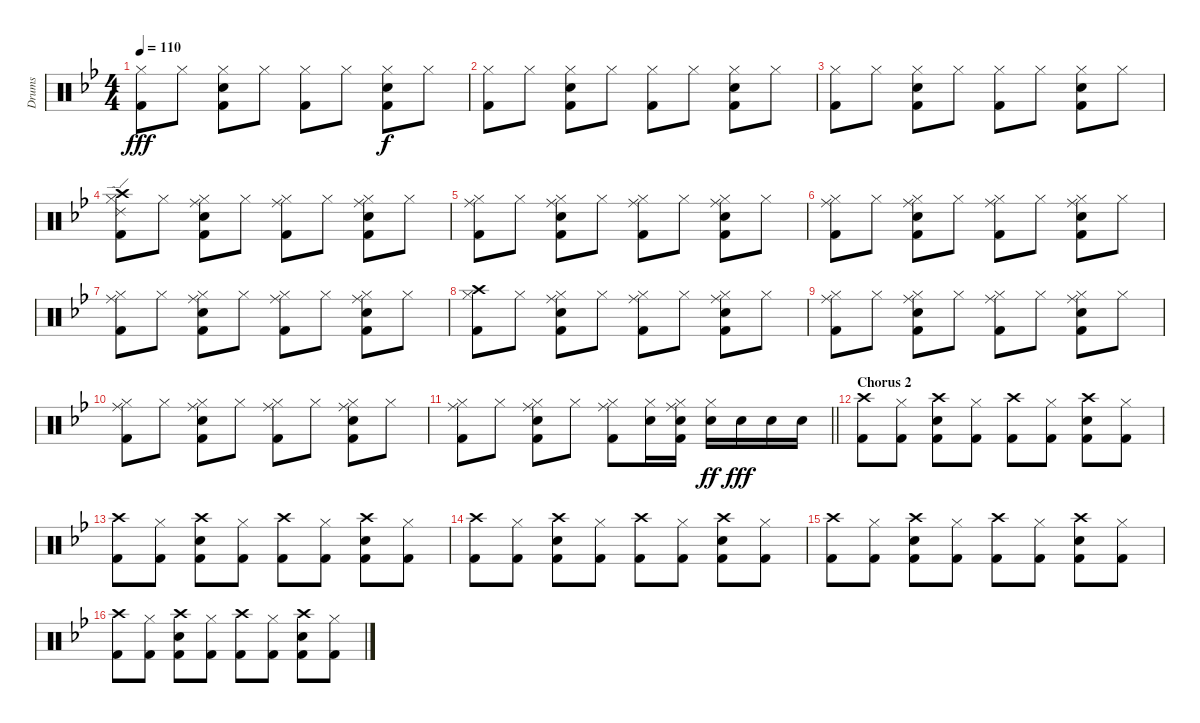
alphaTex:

\track ("Drums" "Drums") {instrument percussion}
\staff {score}
\articulation defaults
\ts (4 4)
\tempo 110
\clef neutral
\ks bb
("Hi-Hat (closed)" "Kick (hit) 2").8{dy fff} "Hi-Hat (closed)".8 ("Hi-Hat (closed)" "Electric Snare (hit)" "Kick (hit) 2").8 "Hi-Hat (closed)".8 ("Hi-Hat (closed)" "Kick (hit) 2").8 "Hi-Hat (closed)".8 ("Hi-Hat (closed)" "Electric Snare (hit)" "Kick (hit) 2").8{dy f} "Hi-Hat (closed)".8 |
("Hi-Hat (closed)" "Kick (hit) 2").8 "Hi-Hat (closed)".8 ("Hi-Hat (closed)" "Electric Snare (hit)" "Kick (hit) 2").8 "Hi-Hat (closed)".8 ("Hi-Hat (closed)" "Kick (hit) 2").8 "Hi-Hat (closed)".8 ("Hi-Hat (closed)" "Electric Snare (hit)" "Kick (hit) 2").8 "Hi-Hat (closed)".8 |
("Hi-Hat (closed)" "Kick (hit) 2").8 "Hi-Hat (closed)".8 ("Hi-Hat (closed)" "Electric Snare (hit)" "Kick (hit) 2").8 "Hi-Hat (closed)".8 ("Hi-Hat (closed)" "Kick (hit) 2").8 "Hi-Hat (closed)".8 ("Hi-Hat (closed)" "Electric Snare (hit)" "Kick (hit) 2").8 "Hi-Hat (closed)".8 |
("Crash high (hit)" "Ride (edge) 2" "Hi-Hat (closed)" "Kick (hit) 2").8 "Hi-Hat (closed)".8 ("Ride (middle)" "Hi-Hat (closed)" "Electric Snare (hit)" "Kick (hit) 2").8 "Hi-Hat (closed)".8 ("Ride (middle)" "Hi-Hat (closed)" "Kick (hit) 2").8 "Hi-Hat (closed)".8 ("Ride (middle)" "Hi-Hat (closed)" "Electric Snare (hit)" "Kick (hit) 2").8 "Hi-Hat (closed)".8 |
("Ride (middle)" "Hi-Hat (closed)" "Kick (hit) 2").8 "Hi-Hat (closed)".8 ("Ride (middle)" "Hi-Hat (closed)" "Electric Snare (hit)" "Kick (hit) 2").8 "Hi-Hat (closed)".8 ("Ride (middle)" "Hi-Hat (closed)" "Kick (hit) 2").8 "Hi-Hat (closed)".8 ("Ride (middle)" "Hi-Hat (closed)" "Electric Snare (hit)" "Kick (hit) 2").8 "Hi-Hat (closed)".8 |
("Ride (middle)" "Hi-Hat (closed)" "Kick (hit) 2").8 "Hi-Hat (closed)".8 ("Ride (middle)" "Hi-Hat (closed)" "Electric Snare (hit)" "Kick (hit) 2").8 "Hi-Hat (closed)".8 ("Ride (middle)" "Hi-Hat (closed)" "Kick (hit) 2").8 "Hi-Hat (closed)".8 ("Ride (middle)" "Hi-Hat (closed)" "Electric Snare (hit)" "Kick (hit) 2").8 "Hi-Hat (closed)".8 |
("Ride (middle)" "Hi-Hat (closed)" "Kick (hit) 2").8 "Hi-Hat (closed)".8 ("Ride (middle)" "Hi-Hat (closed)" "Electric Snare (hit)" "Kick (hit) 2").8 "Hi-Hat (closed)".8 ("Ride (middle)" "Hi-Hat (closed)" "Kick (hit) 2").8 "Hi-Hat (closed)".8 ("Ride (middle)" "Hi-Hat (closed)" "Electric Snare (hit)" "Kick (hit) 2").8 "Hi-Hat (closed)".8 |
("Crash high (hit)" "Hi-Hat (closed)" "Kick (hit) 2").8 "Hi-Hat (closed)".8 ("Ride (middle)" "Hi-Hat (closed)" "Electric Snare (hit)" "Kick (hit) 2").8 "Hi-Hat (closed)".8 ("Ride (middle)" "Hi-Hat (closed)" "Kick (hit) 2").8 "Hi-Hat (closed)".8 ("Ride (middle)" "Hi-Hat (closed)" "Electric Snare (hit)" "Kick (hit) 2").8 "Hi-Hat (closed)".8 |
("Ride (middle)" "Hi-Hat (closed)" "Kick (hit) 2").8 "Hi-Hat (closed)".8 ("Ride (middle)" "Hi-Hat (closed)" "Electric Snare (hit)" "Kick (hit) 2").8 "Hi-Hat (closed)".8 ("Ride (middle)" "Hi-Hat (closed)" "Kick (hit) 2").8 "Hi-Hat (closed)".8 ("Ride (middle)" "Hi-Hat (closed)" "Electric Snare (hit)" "Kick (hit) 2").8 "Hi-Hat (closed)".8 |
("Ride (middle)" "Hi-Hat (closed)" "Kick (hit) 2").8 "Hi-Hat (closed)".8 ("Ride (middle)" "Hi-Hat (closed)" "Electric Snare (hit)" "Kick (hit) 2").8 "Hi-Hat (closed)".8 ("Ride (middle)" "Hi-Hat (closed)" "Kick (hit) 2").8 "Hi-Hat (closed)".8 ("Ride (middle)" "Hi-Hat (closed)" "Electric Snare (hit)" "Kick (hit) 2").8 "Hi-Hat (closed)".8 |
\barLineRight lightlight
("Ride (middle)" "Hi-Hat (closed)" "Kick (hit) 2").8 "Hi-Hat (closed)".8 ("Ride (middle)" "Hi-Hat (closed)" "Electric Snare (hit)" "Kick (hit) 2").8 "Hi-Hat (closed)".8 ("Ride (middle)" "Hi-Hat (closed)" "Kick (hit) 2").8 ("Hi-Hat (closed)" "Electric Snare (hit)").16 ("Ride (middle)" "Hi-Hat (closed)" "Electric Snare (hit)" "Kick (hit) 2").16 ("Hi-Hat (closed)" "Electric Snare (hit)").16{dy ff} "Electric Snare (hit)".16{dy fff} "Electric Snare (hit)".16 "Electric Snare (hit)".16 |
\section ("" "Chorus 2")
("Crash high (hit)" "Kick (hit) 2").8 ("Hi-Hat (closed)" "Kick (hit) 2").8 ("Crash high (hit)" "Electric Snare (hit)" "Kick (hit) 2").8 ("Hi-Hat (closed)" "Kick (hit) 2").8 ("Crash high (hit)" "Kick (hit) 2").8 ("Hi-Hat (closed)" "Kick (hit) 2").8 ("Crash high (hit)" "Electric Snare (hit)" "Kick (hit) 2").8 ("Hi-Hat (closed)" "Kick (hit) 2").8 |
("Crash high (hit)" "Kick (hit) 2").8 ("Hi-Hat (closed)" "Kick (hit) 2").8 ("Crash high (hit)" "Electric Snare (hit)" "Kick (hit) 2").8 ("Hi-Hat (closed)" "Kick (hit) 2").8 ("Crash high (hit)" "Kick (hit) 2").8 ("Hi-Hat (closed)" "Kick (hit) 2").8 ("Crash high (hit)" "Electric Snare (hit)" "Kick (hit) 2").8 ("Hi-Hat (closed)" "Kick (hit) 2").8 |
("Crash high (hit)" "Kick (hit) 2").8 ("Hi-Hat (closed)" "Kick (hit) 2").8 ("Crash high (hit)" "Electric Snare (hit)" "Kick (hit) 2").8 ("Hi-Hat (closed)" "Kick (hit) 2").8 ("Crash high (hit)" "Kick (hit) 2").8 ("Hi-Hat (closed)" "Kick (hit) 2").8 ("Crash high (hit)" "Electric Snare (hit)" "Kick (hit) 2").8 ("Hi-Hat (closed)" "Kick (hit) 2").8 |
("Crash high (hit)" "Kick (hit) 2").8 ("Hi-Hat (closed)" "Kick (hit) 2").8 ("Crash high (hit)" "Electric Snare (hit)" "Kick (hit) 2").8 ("Hi-Hat (closed)" "Kick (hit) 2").8 ("Crash high (hit)" "Kick (hit) 2").8 ("Hi-Hat (closed)" "Kick (hit) 2").8 ("Crash high (hit)" "Electric Snare (hit)" "Kick (hit) 2").8 ("Hi-Hat (closed)" "Kick (hit) 2").8 |
("Crash high (hit)" "Kick (hit) 2").8 ("Hi-Hat (closed)" "Kick (hit) 2").8 ("Crash high (hit)" "Electric Snare (hit)" "Kick (hit) 2").8 ("Hi-Hat (closed)" "Kick (hit) 2").8 ("Crash high (hit)" "Kick (hit) 2").8 ("Hi-Hat (closed)" "Kick (hit) 2").8 ("Crash high (hit)" "Electric Snare (hit)" "Kick (hit) 2").8 ("Hi-Hat (closed)" "Kick (hit) 2").8
